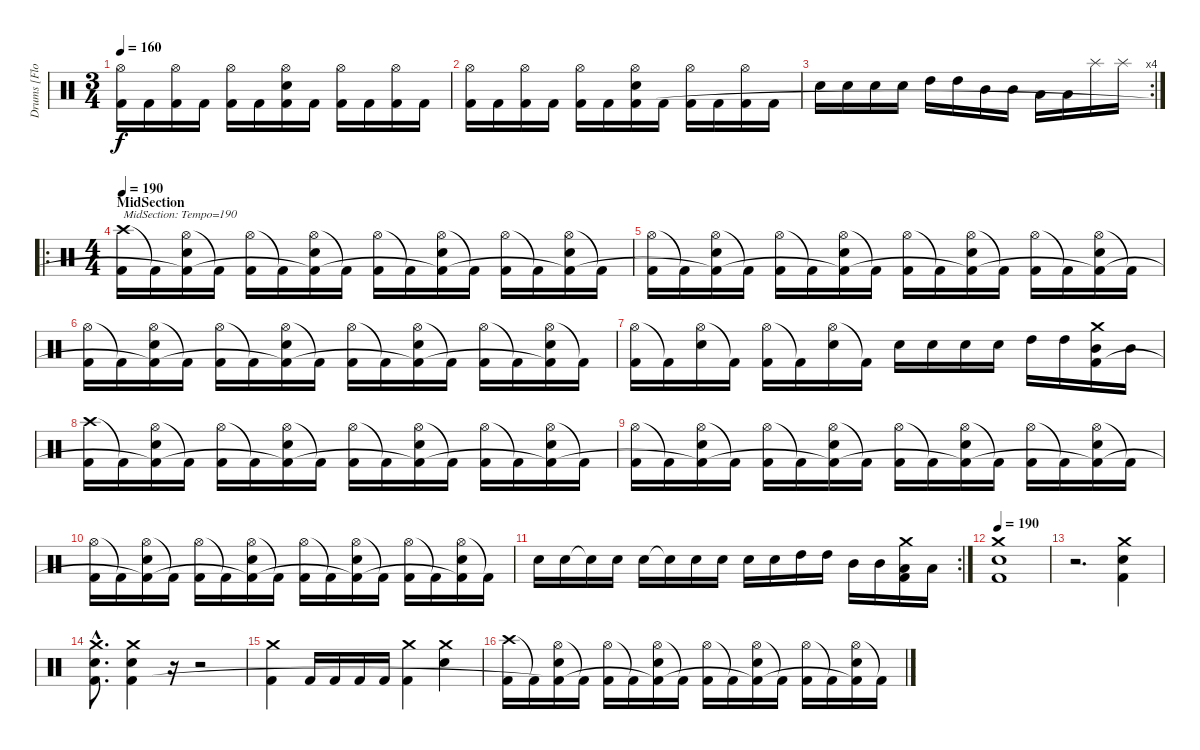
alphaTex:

\track ("Drums [Flo Mounier]" "Drums [Flo") {instrument percussion}
\staff {score}
\articulation defaults
\ts (3 4)
\tempo 160
\clef neutral
\ks c
("Hi-Hat (open)" "Kick (hit) 2").16{dy f} "Kick (hit) 2".16 ("Hi-Hat (open)" "Kick (hit) 2").16 "Kick (hit) 2".16 ("Hi-Hat (open)" "Kick (hit) 2").16 "Kick (hit) 2".16 ("Hi-Hat (open)" "Electric Snare (hit)" "Kick (hit) 2").16 "Kick (hit) 2".16 ("Hi-Hat (open)" "Kick (hit) 2").16 "Kick (hit) 2".16 ("Hi-Hat (open)" "Kick (hit) 2").16 "Kick (hit) 2".16 |
("Hi-Hat (open)" "Kick (hit) 2").16 "Kick (hit) 2".16 ("Hi-Hat (open)" "Kick (hit) 2").16 "Kick (hit) 2".16 ("Hi-Hat (open)" "Kick (hit) 2").16 "Kick (hit) 2".16 ("Hi-Hat (open)" "Electric Snare (hit)" "Kick (hit) 2").16 "Kick (hit) 2".16 ("Hi-Hat (open)" "Kick (hit) 2").16 "Kick (hit) 2".16 ("Hi-Hat (open)" "Kick (hit) 2").16 "Kick (hit) 2".16 |
\rc 4 "Electric Snare (hit)".16 "Electric Snare (hit)".16 "Electric Snare (hit)".16 "Electric Snare (hit)".16 "High Tom (hit)".16 "High Tom (hit)".16 "Mid Tom (hit)".16 "Mid Tom (hit)".16 "Low Tom (hit)".16 "Low Tom (hit)".16 "Splash (hit)".16 "Splash (hit)".16
|
\ro
\ts (4 4)
\section ("" "MidSection")
\tempo 190
("Crash high (hit)" "Kick (hit) 2").16{txt "MidSection: Tempo=190"} "Kick (hit) 2"{t}.16 ("Hi-Hat (open)" "Electric Snare (hit)" "Kick (hit) 2"{t}).16 "Kick (hit) 2"{t}.16 ("Hi-Hat (open)" "Kick (hit) 2").16 "Kick (hit) 2"{t}.16 ("Hi-Hat (open)" "Electric Snare (hit)" "Kick (hit) 2"{t}).16 "Kick (hit) 2"{t}.16 ("Hi-Hat (open)" "Kick (hit) 2").16 "Kick (hit) 2"{t}.16 ("Hi-Hat (open)" "Electric Snare (hit)" "Kick (hit) 2"{t}).16 "Kick (hit) 2"{t}.16 ("Hi-Hat (open)" "Kick (hit) 2").16 "Kick (hit) 2"{t}.16 ("Hi-Hat (open)" "Electric Snare (hit)" "Kick (hit) 2"{t}).16 "Kick (hit) 2"{t}.16 |
("Hi-Hat (open)" "Kick (hit) 2").16 "Kick (hit) 2"{t}.16 ("Hi-Hat (open)" "Electric Snare (hit)" "Kick (hit) 2"{t}).16 "Kick (hit) 2"{t}.16 ("Hi-Hat (open)" "Kick (hit) 2").16 "Kick (hit) 2"{t}.16 ("Hi-Hat (open)" "Electric Snare (hit)" "Kick (hit) 2"{t}).16 "Kick (hit) 2"{t}.16 ("Hi-Hat (open)" "Kick (hit) 2").16 "Kick (hit) 2"{t}.16 ("Hi-Hat (open)" "Electric Snare (hit)" "Kick (hit) 2"{t}).16 "Kick (hit) 2"{t}.16 ("Hi-Hat (open)" "Kick (hit) 2").16 "Kick (hit) 2"{t}.16 ("Hi-Hat (open)" "Electric Snare (hit)" "Kick (hit) 2"{t}).16 "Kick (hit) 2"{t}.16 |
("Hi-Hat (open)" "Kick (hit) 2").16 "Kick (hit) 2"{t}.16 ("Hi-Hat (open)" "Electric Snare (hit)" "Kick (hit) 2"{t}).16 "Kick (hit) 2"{t}.16 ("Hi-Hat (open)" "Kick (hit) 2").16 "Kick (hit) 2"{t}.16 ("Hi-Hat (open)" "Electric Snare (hit)" "Kick (hit) 2"{t}).16 "Kick (hit) 2"{t}.16 ("Hi-Hat (open)" "Kick (hit) 2").16 "Kick (hit) 2"{t}.16 ("Hi-Hat (open)" "Electric Snare (hit)" "Kick (hit) 2"{t}).16 "Kick (hit) 2"{t}.16 ("Hi-Hat (open)" "Kick (hit) 2").16 "Kick (hit) 2"{t}.16 ("Hi-Hat (open)" "Electric Snare (hit)" "Kick (hit) 2"{t}).16 "Kick (hit) 2"{t}.16 |
("Hi-Hat (open)" "Kick (hit) 2").16 "Kick (hit) 2"{t}.16 ("Hi-Hat (open)" "Electric Snare (hit)").16 "Kick (hit) 2"{t}.16 ("Hi-Hat (open)" "Kick (hit) 2").16 "Kick (hit) 2"{t}.16 ("Hi-Hat (open)" "Electric Snare (hit)").16 "Kick (hit) 2"{t}.16 "Electric Snare (hit)".16 "Electric Snare (hit)".16 "Electric Snare (hit)".16 "Electric Snare (hit)".16 "High Tom (hit)".16 "High Tom (hit)".16 ("Crash medium (hit)" "Mid Tom (hit)" "Kick (hit) 2").16 "Mid Tom (hit)".16 |
("Crash high (hit)" "Kick (hit) 2").16 "Kick (hit) 2"{t}.16 ("Hi-Hat (open)" "Electric Snare (hit)" "Kick (hit) 2"{t}).16 "Kick (hit) 2"{t}.16 ("Hi-Hat (open)" "Kick (hit) 2").16 "Kick (hit) 2"{t}.16 ("Hi-Hat (open)" "Electric Snare (hit)" "Kick (hit) 2"{t}).16 "Kick (hit) 2"{t}.16 ("Hi-Hat (open)" "Kick (hit) 2").16 "Kick (hit) 2"{t}.16 ("Hi-Hat (open)" "Electric Snare (hit)" "Kick (hit) 2"{t}).16 "Kick (hit) 2"{t}.16 ("Hi-Hat (open)" "Kick (hit) 2").16 "Kick (hit) 2"{t}.16 ("Hi-Hat (open)" "Electric Snare (hit)" "Kick (hit) 2"{t}).16 "Kick (hit) 2"{t}.16 |
("Hi-Hat (open)" "Kick (hit) 2").16 "Kick (hit) 2"{t}.16 ("Hi-Hat (open)" "Electric Snare (hit)" "Kick (hit) 2"{t}).16 "Kick (hit) 2"{t}.16 ("Hi-Hat (open)" "Kick (hit) 2").16 "Kick (hit) 2"{t}.16 ("Hi-Hat (open)" "Electric Snare (hit)" "Kick (hit) 2"{t}).16 "Kick (hit) 2"{t}.16 ("Hi-Hat (open)" "Kick (hit) 2").16 "Kick (hit) 2"{t}.16 ("Hi-Hat (open)" "Electric Snare (hit)" "Kick (hit) 2"{t}).16 "Kick (hit) 2"{t}.16 ("Hi-Hat (open)" "Kick (hit) 2").16 "Kick (hit) 2"{t}.16 ("Hi-Hat (open)" "Electric Snare (hit)" "Kick (hit) 2"{t}).16 "Kick (hit) 2"{t}.16 |
("Hi-Hat (open)" "Kick (hit) 2").16 "Kick (hit) 2"{t}.16 ("Hi-Hat (open)" "Electric Snare (hit)" "Kick (hit) 2"{t}).16 "Kick (hit) 2"{t}.16 ("Hi-Hat (open)" "Kick (hit) 2").16 "Kick (hit) 2"{t}.16 ("Hi-Hat (open)" "Electric Snare (hit)" "Kick (hit) 2"{t}).16 "Kick (hit) 2"{t}.16 ("Hi-Hat (open)" "Kick (hit) 2").16 "Kick (hit) 2"{t}.16 ("Hi-Hat (open)" "Electric Snare (hit)" "Kick (hit) 2"{t}).16 "Kick (hit) 2"{t}.16 ("Hi-Hat (open)" "Kick (hit) 2").16 "Kick (hit) 2"{t}.16 ("Hi-Hat (open)" "Electric Snare (hit)" "Kick (hit) 2"{t}).16 "Kick (hit) 2"{t}.16 |
\rc 2 "Electric Snare (hit)".16 "Electric Snare (hit)".16 "Snare (hit)"{t}.16 "Electric Snare (hit)".16 "Electric Snare (hit)".16 "Snare (hit)"{t}.16 "Electric Snare (hit)".16 "Electric Snare (hit)".16 "Electric Snare (hit)".16 "Electric Snare (hit)".16 "High Tom (hit)".16 "High Tom (hit)".16 "Mid Tom (hit)".16 "Mid Tom (hit)".16
("Crash medium (hit)" "Low Tom (hit)" "Kick (hit) 2").16 "Low Tom (hit)".16 |
\tempo 190
("Crash medium (hit)" "Electric Snare (hit)" "Kick (hit) 2").1 |
r.2{d} ("Crash medium (hit)" "Electric Snare (hit)" "Kick (hit) 2").4 |
("Crash medium (hit)"{hac} "Electric Snare (hit)"{hac} "Kick (hit) 2"{hac}).8{d} ("Crash medium (hit)" "Electric Snare (hit)" "Kick (hit) 2").4 r.16 r.2 |
("Crash medium (hit)" "Kick (hit) 2").4 "Kick (hit) 2".16 "Kick (hit) 2".16 "Kick (hit) 2".16 "Kick (hit) 2".16 ("Crash medium (hit)" "Kick (hit) 2").4 ("Crash medium (hit)" "Electric Snare (hit)").4 |
("Crash high (hit)" "Kick (hit) 2").16 "Kick (hit) 2"{t}.16 ("Hi-Hat (open)" "Electric Snare (hit)" "Kick (hit) 2"{t}).16 "Kick (hit) 2"{t}.16 ("Hi-Hat (open)" "Kick (hit) 2").16 "Kick (hit) 2"{t}.16 ("Hi-Hat (open)" "Electric Snare (hit)" "Kick (hit) 2"{t}).16 "Kick (hit) 2"{t}.16 ("Hi-Hat (open)" "Kick (hit) 2").16 "Kick (hit) 2"{t}.16 ("Hi-Hat (open)" "Electric Snare (hit)" "Kick (hit) 2"{t}).16 "Kick (hit) 2"{t}.16 ("Hi-Hat (open)" "Kick (hit) 2").16 "Kick (hit) 2"{t}.16 ("Hi-Hat (open)" "Electric Snare (hit)" "Kick (hit) 2"{t}).16 "Kick (hit) 2"{t}.16
